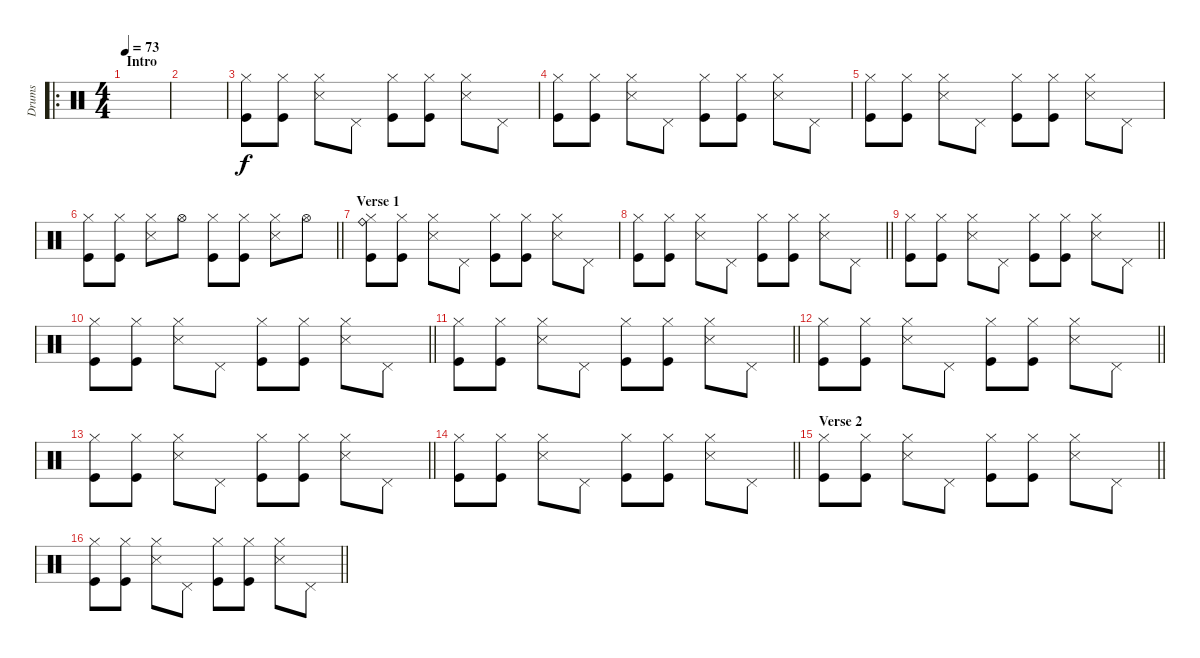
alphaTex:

\track ("Drums" "Drums") {instrument percussion}
\staff {score}
\articulation defaults
\ro
\ts (4 4)
\section ("" "Intro")
\tempo 73
\clef neutral
\ks c
|
|
("Hi-Hat (closed)" "Kick (hit)").8 ("Hi-Hat (closed)" "Kick (hit)").8 ("Hi-Hat (closed)" "Snare (side stick) 3").8 "Pedal Hi-Hat (hit)".8 ("Hi-Hat (closed)" "Kick (hit)").8 ("Hi-Hat (closed)" "Kick (hit)").8 ("Hi-Hat (closed)" "Snare (side stick) 3").8 "Pedal Hi-Hat (hit)".8 |
("Hi-Hat (closed)" "Kick (hit)").8 ("Hi-Hat (closed)" "Kick (hit)").8 ("Hi-Hat (closed)" "Snare (side stick) 3").8 "Pedal Hi-Hat (hit)".8 ("Hi-Hat (closed)" "Kick (hit)").8 ("Hi-Hat (closed)" "Kick (hit)").8 ("Hi-Hat (closed)" "Snare (side stick) 3").8 "Pedal Hi-Hat (hit)".8 |
("Hi-Hat (closed)" "Kick (hit)").8 ("Hi-Hat (closed)" "Kick (hit)").8 ("Hi-Hat (closed)" "Snare (side stick) 3").8 "Pedal Hi-Hat (hit)".8 ("Hi-Hat (closed)" "Kick (hit)").8 ("Hi-Hat (closed)" "Kick (hit)").8 ("Hi-Hat (closed)" "Snare (side stick) 3").8 "Pedal Hi-Hat (hit)".8 |
\barLineRight lightlight
("Hi-Hat (closed)" "Kick (hit)").8 ("Hi-Hat (closed)" "Kick (hit)").8 ("Hi-Hat (closed)" "Snare (side stick) 3").8 "Hi-Hat (open)".8 ("Hi-Hat (closed)" "Kick (hit)").8 ("Hi-Hat (closed)" "Kick (hit)").8 ("Hi-Hat (closed)" "Snare (side stick) 3").8 "Hi-Hat (open)".8 |
\section ("" "Verse 1")
("Hi-Hat (closed)" "Kick (hit)" "Ride (bell)").8 ("Hi-Hat (closed)" "Kick (hit)").8 ("Hi-Hat (closed)" "Snare (side stick) 3").8 "Pedal Hi-Hat (hit)".8 ("Hi-Hat (closed)" "Kick (hit)").8 ("Hi-Hat (closed)" "Kick (hit)").8 ("Hi-Hat (closed)" "Snare (side stick) 3").8 "Pedal Hi-Hat (hit)".8 |
\barLineRight lightlight
("Hi-Hat (closed)" "Kick (hit)").8 ("Hi-Hat (closed)" "Kick (hit)").8 ("Hi-Hat (closed)" "Snare (side stick) 3").8 "Pedal Hi-Hat (hit)".8 ("Hi-Hat (closed)" "Kick (hit)").8 ("Hi-Hat (closed)" "Kick (hit)").8 ("Hi-Hat (closed)" "Snare (side stick) 3").8 "Pedal Hi-Hat (hit)".8 |
\barLineRight lightlight
("Hi-Hat (closed)" "Kick (hit)").8 ("Hi-Hat (closed)" "Kick (hit)").8 ("Hi-Hat (closed)" "Snare (side stick) 3").8 "Pedal Hi-Hat (hit)".8 ("Hi-Hat (closed)" "Kick (hit)").8 ("Hi-Hat (closed)" "Kick (hit)").8 ("Hi-Hat (closed)" "Snare (side stick) 3").8 "Pedal Hi-Hat (hit)".8 |
\barLineRight lightlight
("Hi-Hat (closed)" "Kick (hit)").8 ("Hi-Hat (closed)" "Kick (hit)").8 ("Hi-Hat (closed)" "Snare (side stick) 3").8 "Pedal Hi-Hat (hit)".8 ("Hi-Hat (closed)" "Kick (hit)").8 ("Hi-Hat (closed)" "Kick (hit)").8 ("Hi-Hat (closed)" "Snare (side stick) 3").8 "Pedal Hi-Hat (hit)".8 |
\barLineRight lightlight
("Hi-Hat (closed)" "Kick (hit)").8 ("Hi-Hat (closed)" "Kick (hit)").8 ("Hi-Hat (closed)" "Snare (side stick) 3").8 "Pedal Hi-Hat (hit)".8 ("Hi-Hat (closed)" "Kick (hit)").8 ("Hi-Hat (closed)" "Kick (hit)").8 ("Hi-Hat (closed)" "Snare (side stick) 3").8 "Pedal Hi-Hat (hit)".8 |
\barLineRight lightlight
("Hi-Hat (closed)" "Kick (hit)").8 ("Hi-Hat (closed)" "Kick (hit)").8 ("Hi-Hat (closed)" "Snare (side stick) 3").8 "Pedal Hi-Hat (hit)".8 ("Hi-Hat (closed)" "Kick (hit)").8 ("Hi-Hat (closed)" "Kick (hit)").8 ("Hi-Hat (closed)" "Snare (side stick) 3").8 "Pedal Hi-Hat (hit)".8 |
\barLineRight lightlight
("Hi-Hat (closed)" "Kick (hit)").8 ("Hi-Hat (closed)" "Kick (hit)").8 ("Hi-Hat (closed)" "Snare (side stick) 3").8 "Pedal Hi-Hat (hit)".8 ("Hi-Hat (closed)" "Kick (hit)").8 ("Hi-Hat (closed)" "Kick (hit)").8 ("Hi-Hat (closed)" "Snare (side stick) 3").8 "Pedal Hi-Hat (hit)".8 |
\barLineRight lightlight
("Hi-Hat (closed)" "Kick (hit)").8 ("Hi-Hat (closed)" "Kick (hit)").8 ("Hi-Hat (closed)" "Snare (side stick) 3").8 "Pedal Hi-Hat (hit)".8 ("Hi-Hat (closed)" "Kick (hit)").8 ("Hi-Hat (closed)" "Kick (hit)").8 ("Hi-Hat (closed)" "Snare (side stick) 3").8 "Pedal Hi-Hat (hit)".8 |
\section ("" "Verse 2")
\barLineRight lightlight
("Hi-Hat (closed)" "Kick (hit)").8 ("Hi-Hat (closed)" "Kick (hit)").8 ("Hi-Hat (closed)" "Snare (side stick) 3").8 "Pedal Hi-Hat (hit)".8 ("Hi-Hat (closed)" "Kick (hit)").8 ("Hi-Hat (closed)" "Kick (hit)").8 ("Hi-Hat (closed)" "Snare (side stick) 3").8 "Pedal Hi-Hat (hit)".8 |
\barLineRight lightlight
("Hi-Hat (closed)" "Kick (hit)").8 ("Hi-Hat (closed)" "Kick (hit)").8 ("Hi-Hat (closed)" "Snare (side stick) 3").8 "Pedal Hi-Hat (hit)".8 ("Hi-Hat (closed)" "Kick (hit)").8 ("Hi-Hat (closed)" "Kick (hit)").8 ("Hi-Hat (closed)" "Snare (side stick) 3").8 "Pedal Hi-Hat (hit)".8
